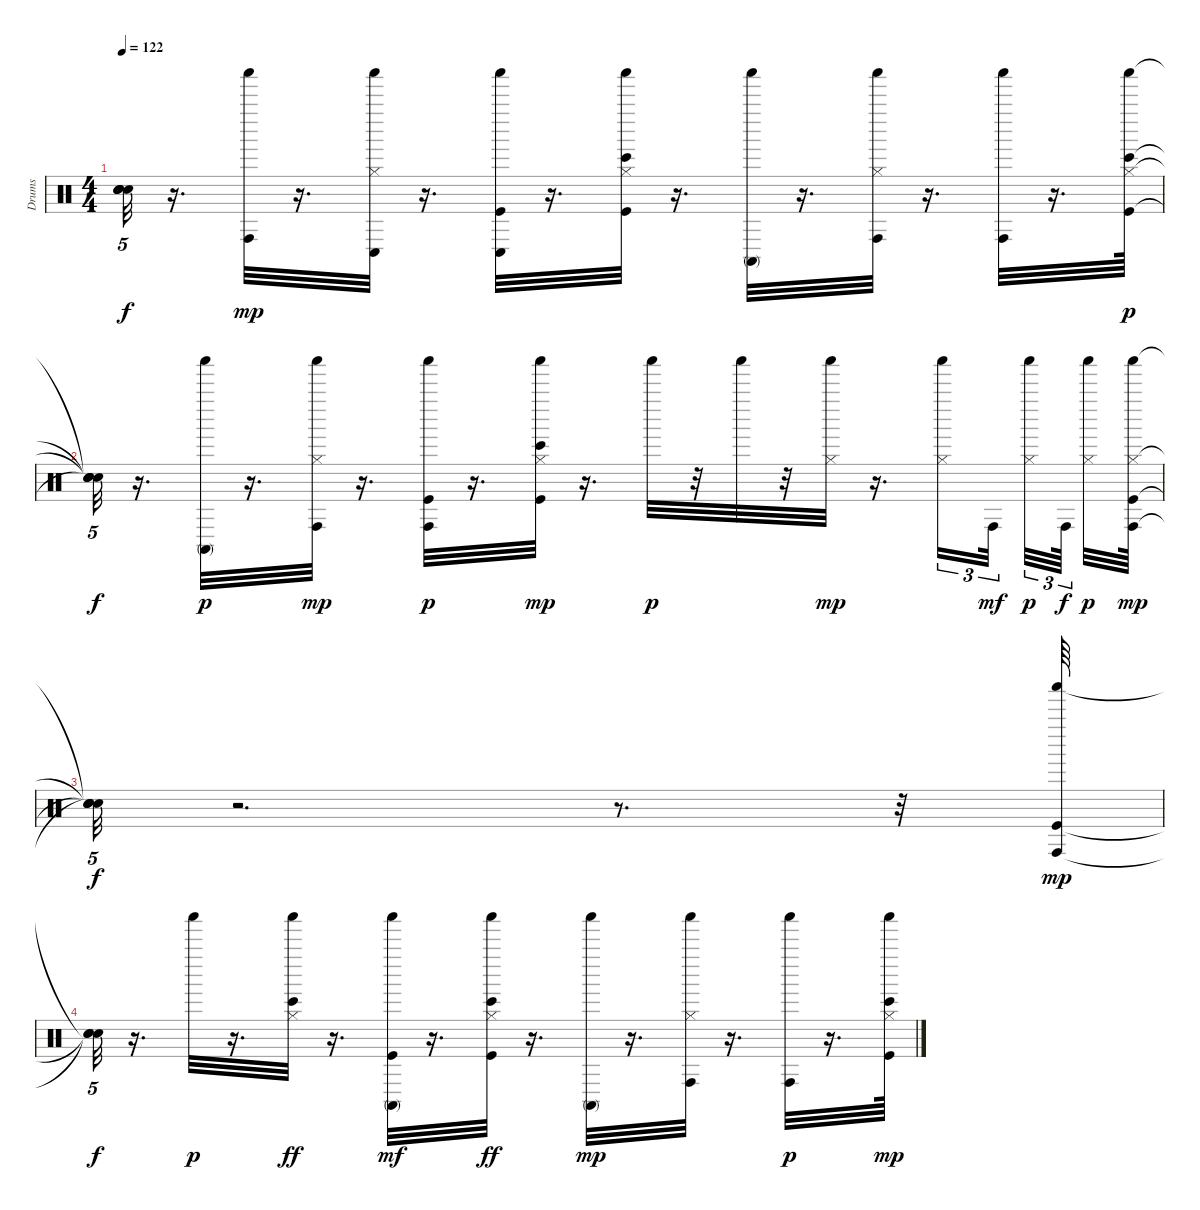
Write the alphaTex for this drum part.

\track ("Drums" "Drums") {instrument percussion}
\staff {score}
\articulation defaults
\ts (4 4)
\tempo 122
\clef neutral
\ks c
("Snare (hit)"{t} "Snare (hit)"{t} "Snare (hit)"{t} "Snare (hit)"{t}).32{tu (5 4) dy f} r.16{d} ("Conga high (hit)" "Shaker (hit)").32{dy mp} r.16{d} ("Hi-Hat (closed)" "Conga low (hit)" "Shaker (hit)").32 r.16{d} ("Kick (hit)" "Conga low (hit)" "Shaker (hit)").32 r.16{d} ("Hi-Hat (closed)" "Kick (hit)" "Bongo High (hit)" "Shaker (hit)").32 r.16{d} ("Conga high (mute)" "Shaker (hit)").32 r.16{d} ("Hi-Hat (closed)" "Conga high (hit)" "Shaker (hit)").32 r.16{d} ("Conga high (hit)" "Shaker (hit)").32 r.16{d} ("Kick (hit)" "Hi-Hat (closed)" "Bongo High (hit)" "Shaker (hit)").64{dy p} |
("Snare (hit)"{t} "Snare (hit)"{t} "Snare (hit)"{t} "Snare (hit)"{t}).32{tu (5 4) dy f} r.16{d} ("Conga high (mute)" "Shaker (hit)").32{dy p} r.16{d} ("Hi-Hat (closed)" "Conga high (hit)" "Shaker (hit)").32{dy mp} r.16{d} ("Kick (hit)" "Conga high (hit)" "Shaker (hit)").32{dy p} r.16{d} ("Kick (hit)" "Hi-Hat (closed)" "Bongo High (hit)" "Shaker (hit)").32{dy mp} r.16{d} "Shaker (hit)".32{dy p} r.32 "Shaker (hit)".32 r.32 ("Hi-Hat (closed)" "Shaker (hit)").32{dy mp} r.16{d} ("Hi-Hat (closed)" "Shaker (hit)").16{tu (3 2)} "Conga high (hit)".32{tu (3 2) dy mf beam splitsecondary} ("Hi-Hat (closed)" "Shaker (hit)").32{tu (3 2) dy p} "Conga high (hit)".64{tu (3 2) dy f beam splitsecondary} ("Hi-Hat (closed)" "Shaker (hit)").32{dy p} ("Kick (hit)" "Hi-Hat (closed)" "Conga high (hit)" "Shaker (hit)").64{dy mp} |
("Snare (hit)"{t} "Snare (hit)"{t} "Snare (hit)"{t} "Snare (hit)"{t}).32{tu (5 4) dy f} r.2{d} r.8{d} r.32 ("Kick (hit)" "Conga high (hit)" "Shaker (hit)").64{dy mp} |
("Snare (hit)"{t} "Snare (hit)"{t} "Snare (hit)"{t}).32{tu (5 4) dy f} r.16{d} "Shaker (hit)".32{dy p} r.16{d} ("Shaker (hit)" "Hi-Hat (closed)" "Bongo High (hit)").32{dy ff} r.16{d} ("Shaker (hit)" "Kick (hit)" "Conga high (mute)").32{dy mf} r.16{d} ("Shaker (hit)" "Kick (hit)" "Hi-Hat (closed)" "Bongo High (hit)").32{dy ff} r.16{d} ("Conga high (mute)" "Shaker (hit)").32{dy mp} r.16{d} ("Hi-Hat (closed)" "Conga high (hit)" "Shaker (hit)").32 r.16{d} ("Conga high (hit)" "Shaker (hit)").32{dy p} r.16{d} ("Bongo High (hit)" "Shaker (hit)" "Kick (hit)" "Hi-Hat (closed)").64{dy mp}
